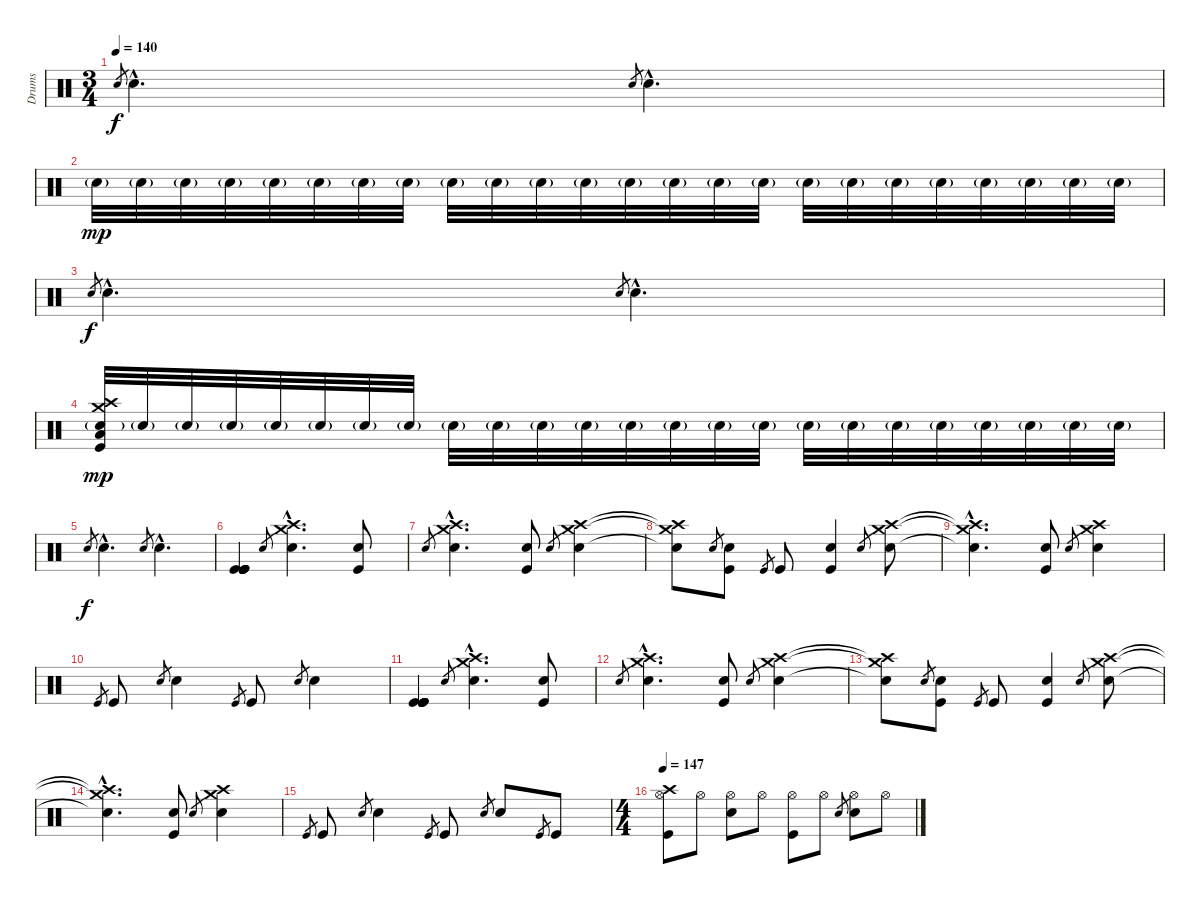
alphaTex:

\track ("Drums" "Drums") {instrument percussion}
\staff {score}
\articulation defaults
\ts (3 4)
\tempo 140
\clef neutral
\ks c "Snare (hit) 2".8{gr dy f} "Snare (hit) 2"{hac}.4{d} "Snare (hit) 2".8{gr} "Snare (hit) 2"{hac}.4{d}
|
"Snare (hit) 2"{g}.32{dy mp} "Snare (hit) 2"{g}.32 "Snare (hit) 2"{g}.32 "Snare (hit) 2"{g}.32 "Snare (hit) 2"{g}.32 "Snare (hit) 2"{g}.32 "Snare (hit) 2"{g}.32 "Snare (hit) 2"{g}.32 "Snare (hit) 2"{g}.32 "Snare (hit) 2"{g}.32 "Snare (hit) 2"{g}.32 "Snare (hit) 2"{g}.32 "Snare (hit) 2"{g}.32 "Snare (hit) 2"{g}.32 "Snare (hit) 2"{g}.32 "Snare (hit) 2"{g}.32 "Snare (hit) 2"{g}.32 "Snare (hit) 2"{g}.32 "Snare (hit) 2"{g}.32 "Snare (hit) 2"{g}.32 "Snare (hit) 2"{g}.32 "Snare (hit) 2"{g}.32 "Snare (hit) 2"{g}.32 "Snare (hit) 2"{g}.32 |
"Snare (hit) 2".8{gr dy f} "Snare (hit) 2"{hac}.4{d} "Snare (hit) 2".8{gr} "Snare (hit) 2"{hac}.4{d} |
("Crash high (hit)" "Crash medium (hit)" "Snare (hit) 2"{g} "Low Floor Tom (hit)" "Kick (hit)").32{dy mp} "Snare (hit) 2"{g}.32 "Snare (hit) 2"{g}.32 "Snare (hit) 2"{g}.32 "Snare (hit) 2"{g}.32 "Snare (hit) 2"{g}.32 "Snare (hit) 2"{g}.32 "Snare (hit) 2"{g}.32 "Snare (hit) 2"{g}.32 "Snare (hit) 2"{g}.32 "Snare (hit) 2"{g}.32 "Snare (hit) 2"{g}.32 "Snare (hit) 2"{g}.32 "Snare (hit) 2"{g}.32 "Snare (hit) 2"{g}.32 "Snare (hit) 2"{g}.32 "Snare (hit) 2"{g}.32 "Snare (hit) 2"{g}.32 "Snare (hit) 2"{g}.32 "Snare (hit) 2"{g}.32 "Snare (hit) 2"{g}.32 "Snare (hit) 2"{g}.32 "Snare (hit) 2"{g}.32 "Snare (hit) 2"{g}.32 |
"Snare (hit) 2".8{gr dy f} "Snare (hit) 2"{hac}.4{d} "Snare (hit) 2".8{gr} "Snare (hit) 2"{hac}.4{d} |
("Kick (hit)" "Kick (hit)" "Kick (hit)" "Kick (hit)" "Kick (hit)" "Kick (hit)").4{volume 16} "Snare (hit) 2".8{gr} ("Crash high (hit)"{hac} "Crash medium (hit)"{hac} "Snare (hit) 2"{hac}).4{d} ("Snare (hit) 2" "Kick (hit)").8 |
"Snare (hit) 2".8{gr} ("Crash high (hit)"{hac} "Crash medium (hit)"{hac} "Snare (hit) 2"{hac}).4{d} ("Snare (hit) 2" "Kick (hit)").8 "Snare (hit) 2".8{gr} ("Crash high (hit)" "Crash medium (hit)" "Snare (hit) 2").4 |
("Crash high (hit)"{t} "Crash medium (hit)"{t} "Snare (hit) 2"{t}).8 "Snare (hit) 2".8{gr} ("Snare (hit) 2" "Kick (hit)").8 "Kick (hit)".8{gr} "Kick (hit)".8 ("Snare (hit) 2" "Kick (hit)").4 "Snare (hit) 2".8{gr} ("Crash high (hit)" "Crash medium (hit)" "Snare (hit) 2").8 |
("Crash high (hit)"{hac t} "Crash medium (hit)"{hac t} "Snare (hit) 2"{hac t}).4{d} ("Snare (hit) 2" "Kick (hit)").8 "Snare (hit) 2".8{gr} ("Crash high (hit)" "Crash medium (hit)" "Snare (hit) 2").4 |
"Kick (hit)".8{gr} "Kick (hit)".8 "Snare (hit) 2".8{gr} "Snare (hit) 2".4 "Kick (hit)".8{gr} "Kick (hit)".8 "Snare (hit) 2".8{gr} "Snare (hit) 2".4 |
("Kick (hit)" "Kick (hit)" "Kick (hit)" "Kick (hit)" "Kick (hit)" "Kick (hit)").4{volume 16} "Snare (hit) 2".8{gr} ("Crash high (hit)"{hac} "Crash medium (hit)"{hac} "Snare (hit) 2"{hac}).4{d} ("Snare (hit) 2" "Kick (hit)").8 |
"Snare (hit) 2".8{gr} ("Crash high (hit)"{hac} "Crash medium (hit)"{hac} "Snare (hit) 2"{hac}).4{d} ("Snare (hit) 2" "Kick (hit)").8 "Snare (hit) 2".8{gr} ("Crash high (hit)" "Crash medium (hit)" "Snare (hit) 2").4 |
("Crash high (hit)"{t} "Crash medium (hit)"{t} "Snare (hit) 2"{t}).8 "Snare (hit) 2".8{gr} ("Snare (hit) 2" "Kick (hit)").8 "Kick (hit)".8{gr} "Kick (hit)".8 ("Snare (hit) 2" "Kick (hit)").4 "Snare (hit) 2".8{gr} ("Crash high (hit)" "Crash medium (hit)" "Snare (hit) 2").8 |
("Crash high (hit)"{hac t} "Crash medium (hit)"{hac t} "Snare (hit) 2"{hac t}).4{d} ("Snare (hit) 2" "Kick (hit)").8 "Snare (hit) 2".8{gr} ("Crash high (hit)" "Crash medium (hit)" "Snare (hit) 2").4 |
"Kick (hit)".8{gr} "Kick (hit)".8 "Snare (hit) 2".8{gr} "Snare (hit) 2".4 "Kick (hit)".8{gr} "Kick (hit)".8 "Snare (hit) 2".8{gr} "Snare (hit) 2".8 "Kick (hit)".8{gr} "Kick (hit)".8 |
\ts (4 4)
\tempo 147
("Crash high (hit)" "Hi-Hat (open)" "Kick (hit)").8 "Hi-Hat (open)".8 ("Hi-Hat (open)" "Snare (hit) 2").8 "Hi-Hat (open)".8 ("Hi-Hat (open)" "Kick (hit)").8 "Hi-Hat (open)".8 "Snare (hit) 2".8{gr} ("Hi-Hat (open)" "Snare (hit) 2").8 "Hi-Hat (open)".8
